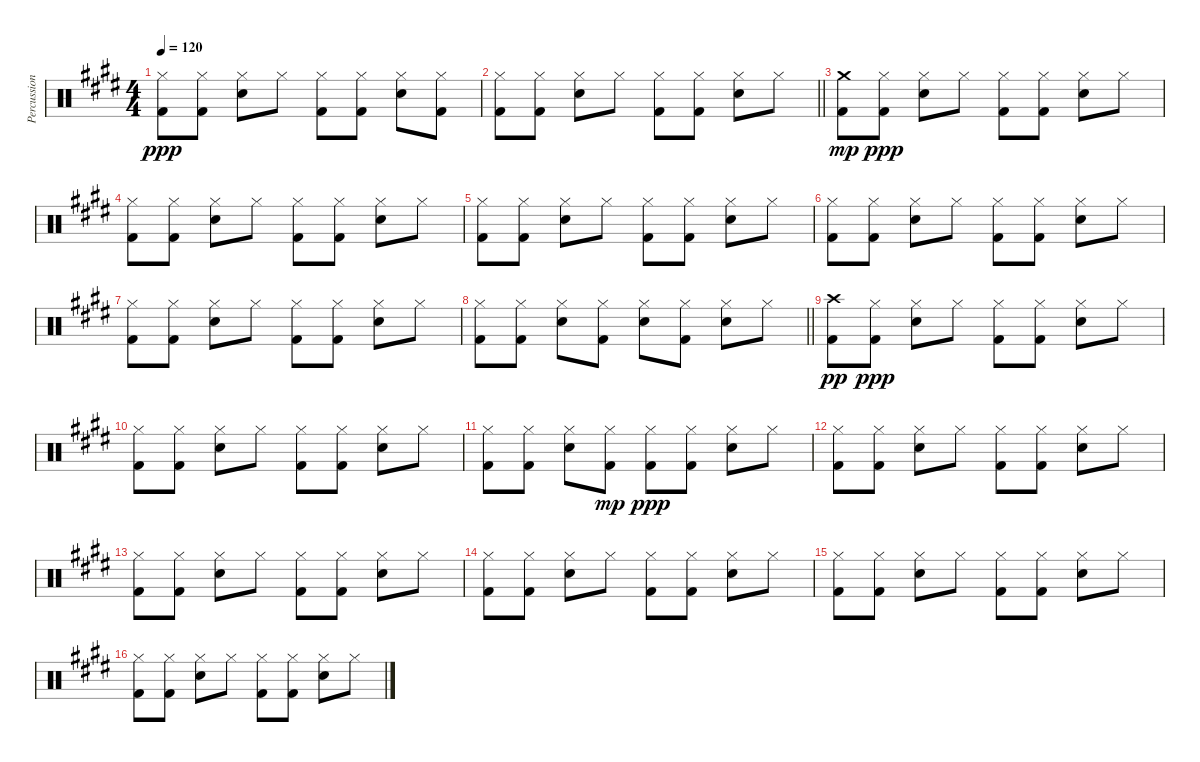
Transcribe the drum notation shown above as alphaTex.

\track ("Percussion" "Percussion") {solo instrument percussion}
\staff {score}
\articulation defaults
\ts (4 4)
\tempo 120
\clef neutral
\ks e
("Hi-Hat (closed)" "Kick (hit) 2").8{dy ppp} ("Hi-Hat (closed)" "Kick (hit) 2").8 ("Hi-Hat (closed)" "Snare (hit) 2").8 "Hi-Hat (closed)".8 ("Hi-Hat (closed)" "Kick (hit) 2").8 ("Hi-Hat (closed)" "Kick (hit) 2").8 ("Hi-Hat (closed)" "Snare (hit) 2").8 ("Hi-Hat (closed)" "Kick (hit) 2").8 |
\barLineRight lightlight
("Hi-Hat (closed)" "Kick (hit) 2").8 ("Hi-Hat (closed)" "Kick (hit) 2").8 ("Hi-Hat (closed)" "Snare (hit) 2").8 "Hi-Hat (closed)".8 ("Hi-Hat (closed)" "Kick (hit) 2").8 ("Hi-Hat (closed)" "Kick (hit) 2").8 ("Hi-Hat (closed)" "Snare (hit) 2").8 "Hi-Hat (closed)".8 |
("Crash medium (hit)" "Kick (hit) 2").8{dy mp} ("Hi-Hat (closed)" "Kick (hit) 2").8{dy ppp} ("Hi-Hat (closed)" "Snare (hit) 2").8 "Hi-Hat (closed)".8 ("Hi-Hat (closed)" "Kick (hit) 2").8 ("Hi-Hat (closed)" "Kick (hit) 2").8 ("Hi-Hat (closed)" "Snare (hit) 2").8 "Hi-Hat (closed)".8 |
("Hi-Hat (closed)" "Kick (hit) 2").8 ("Hi-Hat (closed)" "Kick (hit) 2").8 ("Hi-Hat (closed)" "Snare (hit) 2").8 "Hi-Hat (closed)".8 ("Hi-Hat (closed)" "Kick (hit) 2").8 ("Hi-Hat (closed)" "Kick (hit) 2").8 ("Hi-Hat (closed)" "Snare (hit) 2").8 "Hi-Hat (closed)".8 |
("Hi-Hat (closed)" "Kick (hit) 2").8 ("Hi-Hat (closed)" "Kick (hit) 2").8 ("Hi-Hat (closed)" "Snare (hit) 2").8 "Hi-Hat (closed)".8 ("Hi-Hat (closed)" "Kick (hit) 2").8 ("Hi-Hat (closed)" "Kick (hit) 2").8 ("Hi-Hat (closed)" "Snare (hit) 2").8 "Hi-Hat (closed)".8 |
("Hi-Hat (closed)" "Kick (hit) 2").8 ("Hi-Hat (closed)" "Kick (hit) 2").8 ("Hi-Hat (closed)" "Snare (hit) 2").8 "Hi-Hat (closed)".8 ("Hi-Hat (closed)" "Kick (hit) 2").8 ("Hi-Hat (closed)" "Kick (hit) 2").8 ("Hi-Hat (closed)" "Snare (hit) 2").8 "Hi-Hat (closed)".8 |
("Hi-Hat (closed)" "Kick (hit) 2").8 ("Hi-Hat (closed)" "Kick (hit) 2").8 ("Hi-Hat (closed)" "Snare (hit) 2").8 "Hi-Hat (closed)".8 ("Hi-Hat (closed)" "Kick (hit) 2").8 ("Hi-Hat (closed)" "Kick (hit) 2").8 ("Hi-Hat (closed)" "Snare (hit) 2").8 "Hi-Hat (closed)".8 |
\barLineRight lightlight
("Hi-Hat (closed)" "Kick (hit) 2").8 ("Hi-Hat (closed)" "Kick (hit) 2").8 ("Hi-Hat (closed)" "Snare (hit) 2").8 ("Hi-Hat (closed)" "Kick (hit) 2").8 ("Hi-Hat (closed)" "Snare (hit) 2").8 ("Hi-Hat (closed)" "Kick (hit) 2").8 ("Hi-Hat (closed)" "Snare (hit) 2").8 "Hi-Hat (closed)".8 |
("Crash high (hit)" "Kick (hit) 2").8{dy pp} ("Hi-Hat (closed)" "Kick (hit) 2").8{dy ppp} ("Hi-Hat (closed)" "Snare (hit) 2").8 "Hi-Hat (closed)".8 ("Hi-Hat (closed)" "Kick (hit) 2").8 ("Hi-Hat (closed)" "Kick (hit) 2").8 ("Hi-Hat (closed)" "Snare (hit) 2").8 "Hi-Hat (closed)".8 |
("Hi-Hat (closed)" "Kick (hit) 2").8 ("Hi-Hat (closed)" "Kick (hit) 2").8 ("Hi-Hat (closed)" "Snare (hit) 2").8 "Hi-Hat (closed)".8 ("Hi-Hat (closed)" "Kick (hit) 2").8 ("Hi-Hat (closed)" "Kick (hit) 2").8 ("Hi-Hat (closed)" "Snare (hit) 2").8 "Hi-Hat (closed)".8 |
("Hi-Hat (closed)" "Kick (hit) 2").8 ("Hi-Hat (closed)" "Kick (hit) 2").8 ("Hi-Hat (closed)" "Snare (hit) 2").8 ("Hi-Hat (closed)" "Kick (hit) 2").8{dy mp} ("Hi-Hat (closed)" "Kick (hit) 2").8{dy ppp} ("Hi-Hat (closed)" "Kick (hit) 2").8 ("Hi-Hat (closed)" "Snare (hit) 2").8 "Hi-Hat (closed)".8 |
("Hi-Hat (closed)" "Kick (hit) 2").8 ("Hi-Hat (closed)" "Kick (hit) 2").8 ("Hi-Hat (closed)" "Snare (hit) 2").8 "Hi-Hat (closed)".8 ("Hi-Hat (closed)" "Kick (hit) 2").8 ("Hi-Hat (closed)" "Kick (hit) 2").8 ("Hi-Hat (closed)" "Snare (hit) 2").8 "Hi-Hat (closed)".8 |
("Hi-Hat (closed)" "Kick (hit) 2").8 ("Hi-Hat (closed)" "Kick (hit) 2").8 ("Hi-Hat (closed)" "Snare (hit) 2").8 "Hi-Hat (closed)".8 ("Hi-Hat (closed)" "Kick (hit) 2").8 ("Hi-Hat (closed)" "Kick (hit) 2").8 ("Hi-Hat (closed)" "Snare (hit) 2").8 "Hi-Hat (closed)".8 |
("Hi-Hat (closed)" "Kick (hit) 2").8 ("Hi-Hat (closed)" "Kick (hit) 2").8 ("Hi-Hat (closed)" "Snare (hit) 2").8 "Hi-Hat (closed)".8 ("Hi-Hat (closed)" "Kick (hit) 2").8 ("Hi-Hat (closed)" "Kick (hit) 2").8 ("Hi-Hat (closed)" "Snare (hit) 2").8 "Hi-Hat (closed)".8 |
("Hi-Hat (closed)" "Kick (hit) 2").8 ("Hi-Hat (closed)" "Kick (hit) 2").8 ("Hi-Hat (closed)" "Snare (hit) 2").8 "Hi-Hat (closed)".8 ("Hi-Hat (closed)" "Kick (hit) 2").8 ("Hi-Hat (closed)" "Kick (hit) 2").8 ("Hi-Hat (closed)" "Snare (hit) 2").8 "Hi-Hat (closed)".8 |
("Hi-Hat (closed)" "Kick (hit) 2").8 ("Hi-Hat (closed)" "Kick (hit) 2").8 ("Hi-Hat (closed)" "Snare (hit) 2").8 "Hi-Hat (closed)".8 ("Hi-Hat (closed)" "Kick (hit) 2").8 ("Hi-Hat (closed)" "Kick (hit) 2").8 ("Hi-Hat (closed)" "Snare (hit) 2").8 "Hi-Hat (closed)".8
